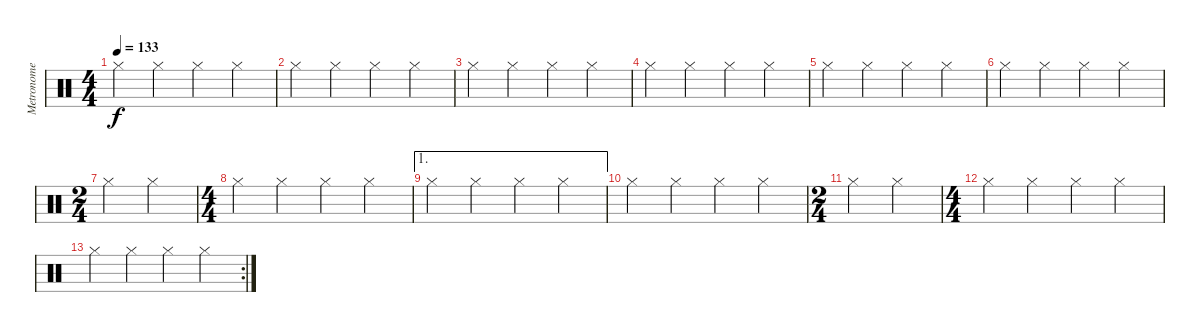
\track ("Metronome (very useful)" "Metronome ") {instrument percussion}
\staff {score}
\articulation defaults
\ts (4 4)
\tempo 133
\clef neutral
\ks c "Hi-Hat (closed)".4{dy f} "Hi-Hat (closed)".4 "Hi-Hat (closed)".4 "Hi-Hat (closed)".4
|
"Hi-Hat (closed)".4 "Hi-Hat (closed)".4 "Hi-Hat (closed)".4 "Hi-Hat (closed)".4 |
"Hi-Hat (closed)".4 "Hi-Hat (closed)".4 "Hi-Hat (closed)".4 "Hi-Hat (closed)".4 |
"Hi-Hat (closed)".4 "Hi-Hat (closed)".4 "Hi-Hat (closed)".4 "Hi-Hat (closed)".4 |
"Hi-Hat (closed)".4 "Hi-Hat (closed)".4 "Hi-Hat (closed)".4 "Hi-Hat (closed)".4 |
"Hi-Hat (closed)".4 "Hi-Hat (closed)".4 "Hi-Hat (closed)".4 "Hi-Hat (closed)".4 |
\ts (2 4)
"Hi-Hat (closed)".4 "Hi-Hat (closed)".4 |
\ts (4 4)
"Hi-Hat (closed)".4 "Hi-Hat (closed)".4 "Hi-Hat (closed)".4 "Hi-Hat (closed)".4 |
\ae 1 "Hi-Hat (closed)".4 "Hi-Hat (closed)".4 "Hi-Hat (closed)".4 "Hi-Hat (closed)".4
|
"Hi-Hat (closed)".4 "Hi-Hat (closed)".4 "Hi-Hat (closed)".4 "Hi-Hat (closed)".4 |
\ts (2 4)
"Hi-Hat (closed)".4 "Hi-Hat (closed)".4 |
\ts (4 4)
"Hi-Hat (closed)".4 "Hi-Hat (closed)".4 "Hi-Hat (closed)".4 "Hi-Hat (closed)".4 |
\rc 2 "Hi-Hat (closed)".4 "Hi-Hat (closed)".4 "Hi-Hat (closed)".4 "Hi-Hat (closed)".4
